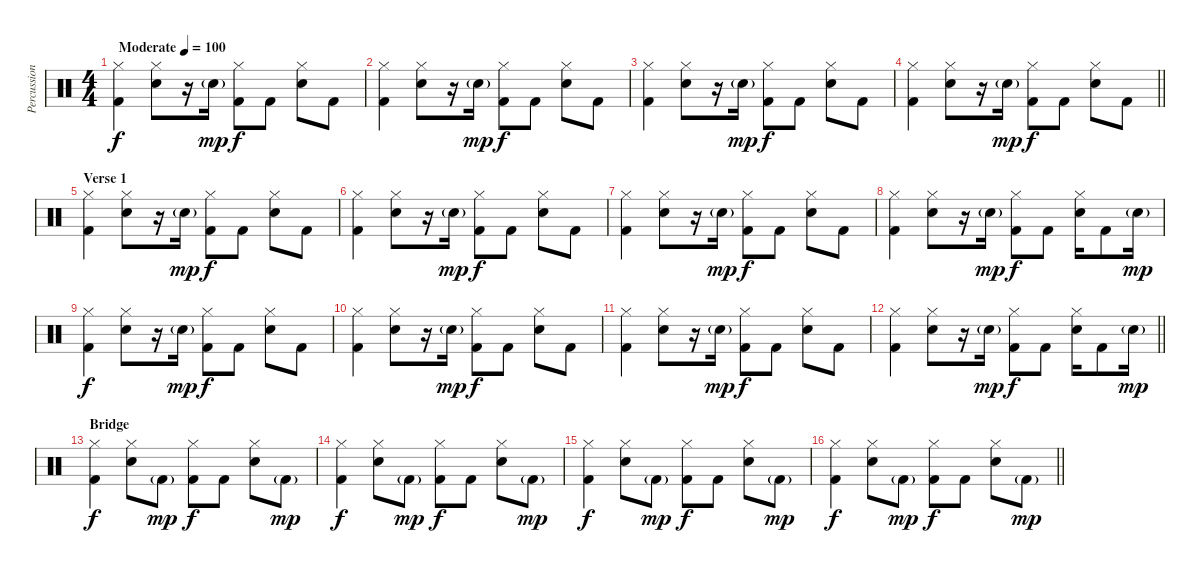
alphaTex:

\track ("Percussion" "Percussion") {instrument percussion}
\staff {score}
\articulation defaults
\ts (4 4)
\tempo (100 "Moderate")
\clef neutral
\ks c
("Hi-Hat (closed)" "Kick (hit) 2").4{dy f} ("Hi-Hat (closed)" "Snare (hit) 2").8 r.16 "Snare (hit) 2"{g}.16{dy mp} ("Hi-Hat (closed)" "Kick (hit) 2").8{dy f} "Kick (hit) 2".8 ("Hi-Hat (closed)" "Snare (hit) 2").8 "Kick (hit) 2".8 |
("Hi-Hat (closed)" "Kick (hit) 2").4 ("Hi-Hat (closed)" "Snare (hit) 2").8 r.16 "Snare (hit) 2"{g}.16{dy mp} ("Hi-Hat (closed)" "Kick (hit) 2").8{dy f} "Kick (hit) 2".8 ("Hi-Hat (closed)" "Snare (hit) 2").8 "Kick (hit) 2".8 |
("Hi-Hat (closed)" "Kick (hit) 2").4 ("Hi-Hat (closed)" "Snare (hit) 2").8 r.16 "Snare (hit) 2"{g}.16{dy mp} ("Hi-Hat (closed)" "Kick (hit) 2").8{dy f} "Kick (hit) 2".8 ("Hi-Hat (closed)" "Snare (hit) 2").8 "Kick (hit) 2".8 |
\barLineRight lightlight
("Hi-Hat (closed)" "Kick (hit) 2").4 ("Hi-Hat (closed)" "Snare (hit) 2").8 r.16 "Snare (hit) 2"{g}.16{dy mp} ("Hi-Hat (closed)" "Kick (hit) 2").8{dy f} "Kick (hit) 2".8 ("Hi-Hat (closed)" "Snare (hit) 2").8 "Kick (hit) 2".8 |
\section ("" "Verse 1")
("Hi-Hat (closed)" "Kick (hit) 2").4 ("Hi-Hat (closed)" "Snare (hit) 2").8 r.16 "Snare (hit) 2"{g}.16{dy mp} ("Hi-Hat (closed)" "Kick (hit) 2").8{dy f} "Kick (hit) 2".8 ("Hi-Hat (closed)" "Snare (hit) 2").8 "Kick (hit) 2".8 |
("Hi-Hat (closed)" "Kick (hit) 2").4 ("Hi-Hat (closed)" "Snare (hit) 2").8 r.16 "Snare (hit) 2"{g}.16{dy mp} ("Hi-Hat (closed)" "Kick (hit) 2").8{dy f} "Kick (hit) 2".8 ("Hi-Hat (closed)" "Snare (hit) 2").8 "Kick (hit) 2".8 |
("Hi-Hat (closed)" "Kick (hit) 2").4 ("Hi-Hat (closed)" "Snare (hit) 2").8 r.16 "Snare (hit) 2"{g}.16{dy mp} ("Hi-Hat (closed)" "Kick (hit) 2").8{dy f} "Kick (hit) 2".8 ("Hi-Hat (closed)" "Snare (hit) 2").8 "Kick (hit) 2".8 |
("Hi-Hat (closed)" "Kick (hit) 2").4 ("Hi-Hat (closed)" "Snare (hit) 2").8 r.16 "Snare (hit) 2"{g}.16{dy mp} ("Hi-Hat (closed)" "Kick (hit) 2").8{dy f} "Kick (hit) 2".8 ("Hi-Hat (closed)" "Snare (hit) 2").16 "Kick (hit) 2".8 "Snare (hit) 2"{g}.16{dy mp} |
("Hi-Hat (closed)" "Kick (hit) 2").4{dy f} ("Hi-Hat (closed)" "Snare (hit) 2").8 r.16 "Snare (hit) 2"{g}.16{dy mp} ("Hi-Hat (closed)" "Kick (hit) 2").8{dy f} "Kick (hit) 2".8 ("Hi-Hat (closed)" "Snare (hit) 2").8 "Kick (hit) 2".8 |
("Hi-Hat (closed)" "Kick (hit) 2").4 ("Hi-Hat (closed)" "Snare (hit) 2").8 r.16 "Snare (hit) 2"{g}.16{dy mp} ("Hi-Hat (closed)" "Kick (hit) 2").8{dy f} "Kick (hit) 2".8 ("Hi-Hat (closed)" "Snare (hit) 2").8 "Kick (hit) 2".8 |
("Hi-Hat (closed)" "Kick (hit) 2").4 ("Hi-Hat (closed)" "Snare (hit) 2").8 r.16 "Snare (hit) 2"{g}.16{dy mp} ("Hi-Hat (closed)" "Kick (hit) 2").8{dy f} "Kick (hit) 2".8 ("Hi-Hat (closed)" "Snare (hit) 2").8 "Kick (hit) 2".8 |
\barLineRight lightlight
("Hi-Hat (closed)" "Kick (hit) 2").4 ("Hi-Hat (closed)" "Snare (hit) 2").8 r.16 "Snare (hit) 2"{g}.16{dy mp} ("Hi-Hat (closed)" "Kick (hit) 2").8{dy f} "Kick (hit) 2".8 ("Hi-Hat (closed)" "Snare (hit) 2").16 "Kick (hit) 2".8 "Snare (hit) 2"{g}.16{dy mp} |
\section ("" "Bridge")
("Hi-Hat (closed)" "Kick (hit) 2").4{dy f} ("Hi-Hat (closed)" "Snare (hit) 2").8 "Kick (hit) 2"{g}.8{dy mp} ("Hi-Hat (closed)" "Kick (hit) 2").8{dy f} "Kick (hit) 2".8 ("Hi-Hat (closed)" "Snare (hit) 2").8 "Kick (hit) 2"{g}.8{dy mp} |
("Hi-Hat (closed)" "Kick (hit) 2").4{dy f} ("Hi-Hat (closed)" "Snare (hit) 2").8 "Kick (hit) 2"{g}.8{dy mp} ("Hi-Hat (closed)" "Kick (hit) 2").8{dy f} "Kick (hit) 2".8 ("Hi-Hat (closed)" "Snare (hit) 2").8 "Kick (hit) 2"{g}.8{dy mp} |
("Hi-Hat (closed)" "Kick (hit) 2").4{dy f} ("Hi-Hat (closed)" "Snare (hit) 2").8 "Kick (hit) 2"{g}.8{dy mp} ("Hi-Hat (closed)" "Kick (hit) 2").8{dy f} "Kick (hit) 2".8 ("Hi-Hat (closed)" "Snare (hit) 2").8 "Kick (hit) 2"{g}.8{dy mp} |
\barLineRight lightlight
("Hi-Hat (closed)" "Kick (hit) 2").4{dy f} ("Hi-Hat (closed)" "Snare (hit) 2").8 "Kick (hit) 2"{g}.8{dy mp} ("Hi-Hat (closed)" "Kick (hit) 2").8{dy f} "Kick (hit) 2".8 ("Hi-Hat (closed)" "Snare (hit) 2").8 "Kick (hit) 2"{g}.8{dy mp}
